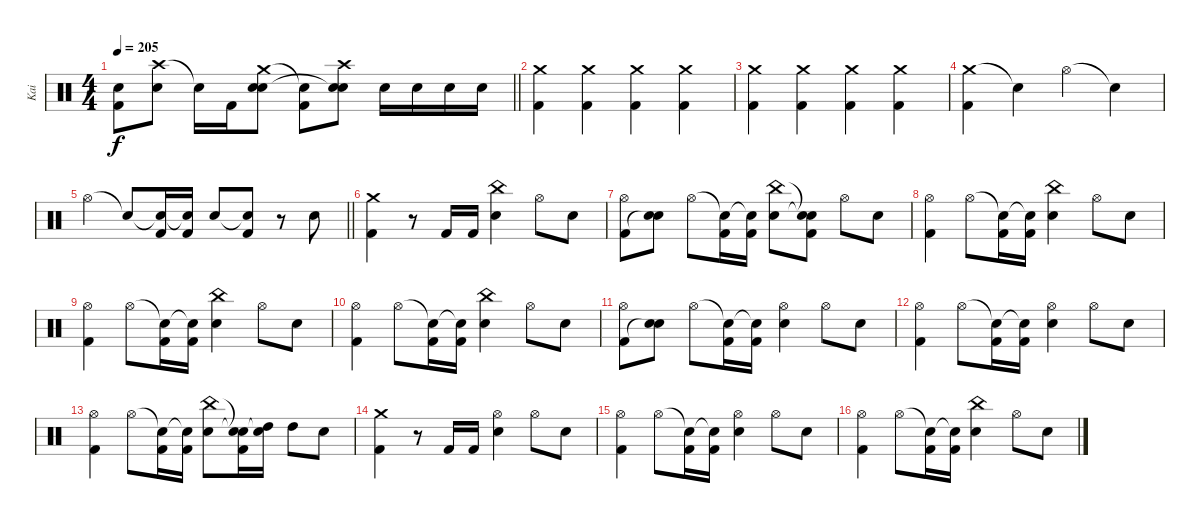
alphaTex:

\track ("Kai" "Kai") {instrument percussion}
\staff {score}
\articulation defaults
\ts (4 4)
\tempo 205
\clef neutral
\barLineRight lightlight
\ks c
("Snare (hit)"{t} "Kick (hit) 2").8{dy f} ("Crash high (hit)" "Snare (hit) 2").8 "Snare (hit)"{t}.16 "Kick (hit) 2".16 ("Crash medium (hit)" "Snare (hit) 2" "Snare (hit)"{t}).8 ("Snare (hit)"{t} "Kick (hit) 2").8 ("Crash high (hit)" "Snare (hit) 2" "Snare (hit)"{t}).8 "Snare (hit) 2".16 "Snare (hit) 2".16 "Snare (hit) 2".16 "Snare (hit) 2".16 |
("Crash medium (hit)" "Kick (hit) 2").4 ("Crash medium (hit)" "Kick (hit) 2").4 ("Crash medium (hit)" "Kick (hit) 2").4 ("Crash medium (hit)" "Kick (hit) 2").4 |
("Crash medium (hit)" "Kick (hit) 2").4 ("Crash medium (hit)" "Kick (hit) 2").4 ("Crash medium (hit)" "Kick (hit) 2").4 ("Crash medium (hit)" "Kick (hit) 2").4 |
("Crash medium (hit)" "Kick (hit) 2").4 "Snare (hit)"{t}.4 "Hi-Hat (open)".4 "Snare (hit)"{t}.4 |
\barLineRight lightlight "Hi-Hat (open)".4 "Snare (hit)"{t}.8
("Snare (hit)"{t} "Kick (hit) 2").16 ("Snare (hit)"{t} "Kick (hit) 2").16 "Snare (hit) 2".8 ("Snare (hit)"{t} "Kick (hit) 2").8 r.8 "Snare (hit) 2".8 |
("Crash medium (hit)" "Kick (hit) 2").4 r.8 "Kick (hit) 2".16 "Kick (hit) 2".16 ("China (hit)" "Snare (hit) 2").4 "Hi-Hat (open)".8 "Snare (hit) 2".8 |
("Hi-Hat (open)" "Kick (hit) 2").8 ("Snare (hit) 2" "Snare (hit)"{t}).8 "Hi-Hat (open)".8 ("Snare (hit)"{t} "Kick (hit) 2").16 ("Snare (hit)"{t} "Kick (hit) 2").16 ("China (hit)" "Snare (hit) 2").8 ("Snare (hit)"{t} "Snare (hit)"{t} "Kick (hit) 2").8 "Hi-Hat (open)".8 "Snare (hit) 2".8 |
("Hi-Hat (open)" "Kick (hit) 2").4 "Hi-Hat (open)".8 ("Snare (hit)"{t} "Kick (hit) 2").16 ("Snare (hit)"{t} "Kick (hit) 2").16 ("China (hit)" "Snare (hit) 2").4 "Hi-Hat (open)".8 "Snare (hit) 2".8 |
("Hi-Hat (open)" "Kick (hit) 2").4 "Hi-Hat (open)".8 ("Snare (hit)"{t} "Kick (hit) 2").16 ("Snare (hit)"{t} "Kick (hit) 2").16 ("China (hit)" "Snare (hit) 2").4 "Hi-Hat (open)".8 "Snare (hit) 2".8 |
("Hi-Hat (open)" "Kick (hit) 2").4 "Hi-Hat (open)".8 ("Snare (hit)"{t} "Kick (hit) 2").16 ("Snare (hit)"{t} "Kick (hit) 2").16 ("China (hit)" "Snare (hit) 2").4 "Hi-Hat (open)".8 "Snare (hit) 2".8 |
("Hi-Hat (open)" "Kick (hit) 2").8 ("Snare (hit) 2" "Snare (hit)"{t}).8 "Hi-Hat (open)".8 ("Snare (hit)"{t} "Kick (hit) 2").16 ("Snare (hit)"{t} "Kick (hit) 2").16 ("Hi-Hat (open)" "Snare (hit) 2").4 "Hi-Hat (open)".8 "Snare (hit) 2".8 |
("Hi-Hat (open)" "Kick (hit) 2").4 "Hi-Hat (open)".8 ("Snare (hit)"{t} "Kick (hit) 2").16 ("Snare (hit)"{t} "Kick (hit) 2").16 ("Hi-Hat (open)" "Snare (hit) 2").4 "Hi-Hat (open)".8 "Snare (hit) 2".8 |
("Hi-Hat (open)" "Kick (hit) 2").4 "Hi-Hat (open)".8 ("Snare (hit)"{t} "Kick (hit) 2").16 ("Snare (hit)"{t} "Kick (hit) 2").16 ("China (hit)" "Snare (hit) 2").8 ("Snare (hit)"{t} "Snare (hit)"{t} "Kick (hit) 2").16 ("High Tom (hit)" "Snare (hit)"{t}).16 "High Tom (hit)".8 "Snare (hit) 2".8 |
("Crash medium (hit)" "Kick (hit) 2").4 r.8 "Kick (hit) 2".16 "Kick (hit) 2".16 ("Hi-Hat (open)" "Snare (hit) 2").4 "Hi-Hat (open)".8 "Snare (hit) 2".8 |
("Hi-Hat (open)" "Kick (hit) 2").4 "Hi-Hat (open)".8 ("Snare (hit)"{t} "Kick (hit) 2").16 ("Snare (hit)"{t} "Kick (hit) 2").16 ("Hi-Hat (open)" "Snare (hit) 2").4 "Hi-Hat (open)".8 "Snare (hit) 2".8 |
("Hi-Hat (open)" "Kick (hit) 2").4 "Hi-Hat (open)".8 ("Snare (hit)"{t} "Kick (hit) 2").16 ("Snare (hit)"{t} "Kick (hit) 2").16 ("China (hit)" "Snare (hit) 2").4 "Hi-Hat (open)".8 "Snare (hit) 2".8
